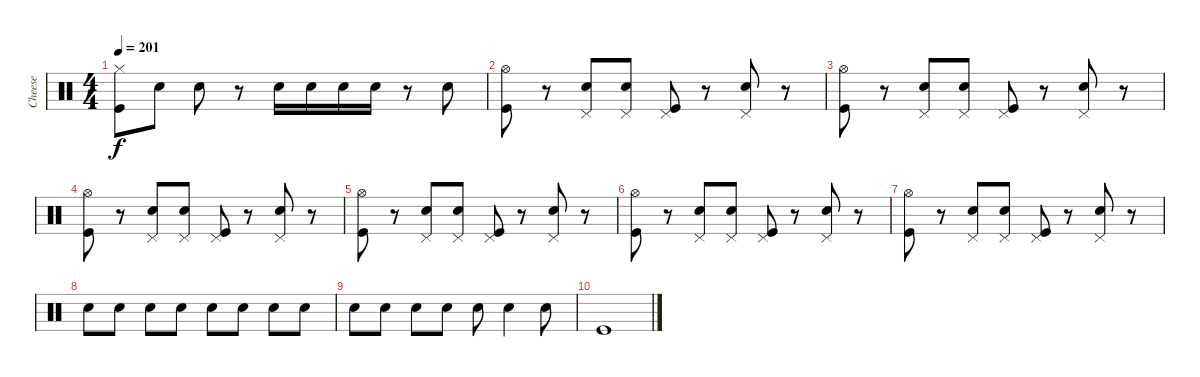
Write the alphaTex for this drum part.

\track ("Cheese" "Cheese") {instrument percussion}
\staff {score}
\articulation defaults
\ts (4 4)
\tempo 201
\clef neutral
\ks c
("Hi-Hat (closed)" "Kick (hit)").8{dy f} "Snare (hit) 2".8 "Snare (hit) 2".8 r.8 "Snare (hit) 2".16 "Snare (hit) 2".16 "Snare (hit) 2".16 "Snare (hit) 2".16 r.8 "Snare (hit) 2".8 |
("Hi-Hat (open)" "Kick (hit)").8 r.8 ("Pedal Hi-Hat (hit)" "Snare (hit) 2").8 ("Pedal Hi-Hat (hit)" "Snare (hit) 2").8 ("Pedal Hi-Hat (hit)" "Kick (hit)").8 r.8 ("Pedal Hi-Hat (hit)" "Snare (hit) 2").8 r.8 |
("Hi-Hat (open)" "Kick (hit)").8 r.8 ("Pedal Hi-Hat (hit)" "Snare (hit) 2").8 ("Pedal Hi-Hat (hit)" "Snare (hit) 2").8 ("Pedal Hi-Hat (hit)" "Kick (hit)").8 r.8 ("Pedal Hi-Hat (hit)" "Snare (hit) 2").8 r.8 |
("Hi-Hat (open)" "Kick (hit)").8 r.8 ("Pedal Hi-Hat (hit)" "Snare (hit) 2").8 ("Pedal Hi-Hat (hit)" "Snare (hit) 2").8 ("Pedal Hi-Hat (hit)" "Kick (hit)").8 r.8 ("Pedal Hi-Hat (hit)" "Snare (hit) 2").8 r.8 |
("Hi-Hat (open)" "Kick (hit)").8 r.8 ("Pedal Hi-Hat (hit)" "Snare (hit) 2").8 ("Pedal Hi-Hat (hit)" "Snare (hit) 2").8 ("Pedal Hi-Hat (hit)" "Kick (hit)").8 r.8 ("Pedal Hi-Hat (hit)" "Snare (hit) 2").8 r.8 |
("Hi-Hat (open)" "Kick (hit)").8 r.8 ("Pedal Hi-Hat (hit)" "Snare (hit) 2").8 ("Pedal Hi-Hat (hit)" "Snare (hit) 2").8 ("Pedal Hi-Hat (hit)" "Kick (hit)").8 r.8 ("Pedal Hi-Hat (hit)" "Snare (hit) 2").8 r.8 |
("Hi-Hat (open)" "Kick (hit)").8 r.8 ("Pedal Hi-Hat (hit)" "Snare (hit) 2").8 ("Pedal Hi-Hat (hit)" "Snare (hit) 2").8 ("Pedal Hi-Hat (hit)" "Kick (hit)").8 r.8 ("Pedal Hi-Hat (hit)" "Snare (hit) 2").8 r.8 |
"Snare (hit) 2".8 "Snare (hit) 2".8 "Snare (hit) 2".8 "Snare (hit) 2".8 "Snare (hit) 2".8 "Snare (hit) 2".8 "Snare (hit) 2".8 "Snare (hit) 2".8 |
"Snare (hit) 2".8 "Snare (hit) 2".8 "Snare (hit) 2".8 "Snare (hit) 2".8 "Snare (hit) 2".8 "Snare (hit) 2".4 "Snare (hit) 2".8 |
"Kick (hit)".1
